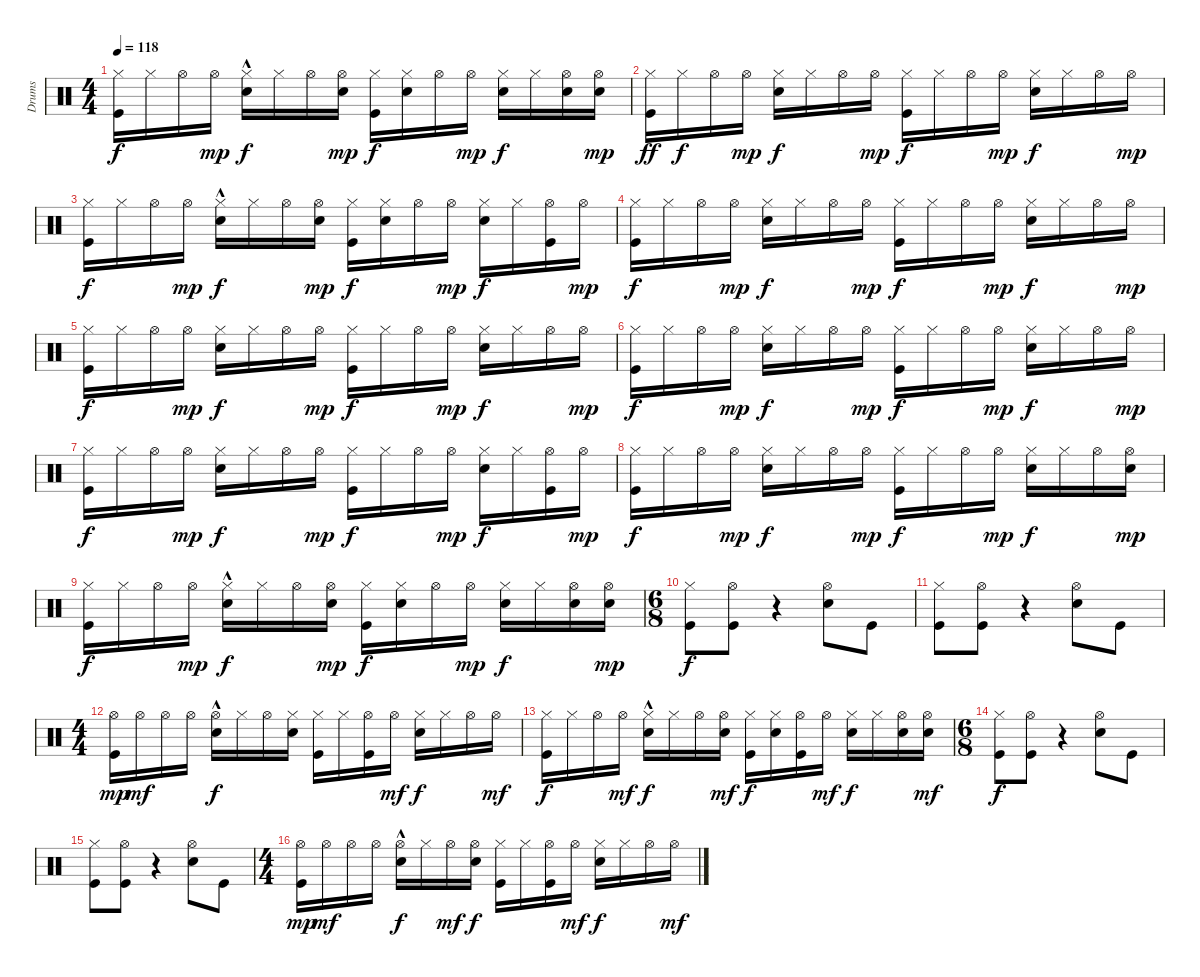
\track ("Drums" "Drums") {instrument percussion}
\staff {score}
\articulation defaults
\ts (4 4)
\tempo 118
\clef neutral
\ks c
("Hi-Hat (closed)" "Kick (hit)").16{dy f} "Hi-Hat (closed)".16 "Hi-Hat (open)".16 "Hi-Hat (open)".16{dy mp} ("Hi-Hat (closed)" "Electric Snare (hit)"{hac}).16{dy f} "Hi-Hat (closed)".16 "Hi-Hat (open)".16 ("Electric Snare (hit)" "Hi-Hat (open)").16{dy mp} ("Kick (hit)" "Hi-Hat (closed)").16{dy f} ("Electric Snare (hit)" "Hi-Hat (closed)").16 "Hi-Hat (open)".16 "Hi-Hat (open)".16{dy mp} ("Hi-Hat (closed)" "Electric Snare (hit)").16{dy f} "Hi-Hat (closed)".16 ("Electric Snare (hit)" "Hi-Hat (open)").16 ("Electric Snare (hit)" "Hi-Hat (open)").16{dy mp} |
("Hi-Hat (closed)" "Kick (hit)").16{dy ff} "Hi-Hat (closed)".16{dy f} "Hi-Hat (open)".16 "Hi-Hat (open)".16{dy mp} ("Hi-Hat (closed)" "Electric Snare (hit)").16{dy f} "Hi-Hat (closed)".16 "Hi-Hat (open)".16 "Hi-Hat (open)".16{dy mp} ("Kick (hit)" "Hi-Hat (closed)").16{dy f} "Hi-Hat (closed)".16 "Hi-Hat (open)".16 "Hi-Hat (open)".16{dy mp} ("Hi-Hat (closed)" "Electric Snare (hit)").16{dy f} "Hi-Hat (closed)".16 "Hi-Hat (open)".16 "Hi-Hat (open)".16{dy mp} |
("Hi-Hat (closed)" "Kick (hit)").16{dy f} "Hi-Hat (closed)".16 "Hi-Hat (open)".16 "Hi-Hat (open)".16{dy mp} ("Hi-Hat (closed)" "Electric Snare (hit)"{hac}).16{dy f} "Hi-Hat (closed)".16 "Hi-Hat (open)".16 ("Electric Snare (hit)" "Hi-Hat (open)").16{dy mp} ("Kick (hit)" "Hi-Hat (closed)").16{dy f} ("Electric Snare (hit)" "Hi-Hat (closed)").16 "Hi-Hat (open)".16 "Hi-Hat (open)".16{dy mp} ("Hi-Hat (closed)" "Electric Snare (hit)").16{dy f} "Hi-Hat (closed)".16 ("Kick (hit)" "Hi-Hat (open)").16 "Hi-Hat (open)".16{dy mp} |
("Hi-Hat (closed)" "Kick (hit)").16{dy f} "Hi-Hat (closed)".16 "Hi-Hat (open)".16 "Hi-Hat (open)".16{dy mp} ("Hi-Hat (closed)" "Electric Snare (hit)").16{dy f} "Hi-Hat (closed)".16 "Hi-Hat (open)".16 "Hi-Hat (open)".16{dy mp} ("Kick (hit)" "Hi-Hat (closed)").16{dy f} "Hi-Hat (closed)".16 "Hi-Hat (open)".16 "Hi-Hat (open)".16{dy mp} ("Hi-Hat (closed)" "Electric Snare (hit)").16{dy f} "Hi-Hat (closed)".16 "Hi-Hat (open)".16 "Hi-Hat (open)".16{dy mp} |
("Hi-Hat (closed)" "Kick (hit)").16{dy f} "Hi-Hat (closed)".16 "Hi-Hat (open)".16 "Hi-Hat (open)".16{dy mp} ("Hi-Hat (closed)" "Electric Snare (hit)").16{dy f} "Hi-Hat (closed)".16 "Hi-Hat (open)".16 "Hi-Hat (open)".16{dy mp} ("Kick (hit)" "Hi-Hat (closed)").16{dy f} "Hi-Hat (closed)".16 "Hi-Hat (open)".16 "Hi-Hat (open)".16{dy mp} ("Hi-Hat (closed)" "Electric Snare (hit)").16{dy f} "Hi-Hat (closed)".16 "Hi-Hat (open)".16 "Hi-Hat (open)".16{dy mp} |
("Hi-Hat (closed)" "Kick (hit)").16{dy f} "Hi-Hat (closed)".16 "Hi-Hat (open)".16 "Hi-Hat (open)".16{dy mp} ("Hi-Hat (closed)" "Electric Snare (hit)").16{dy f} "Hi-Hat (closed)".16 "Hi-Hat (open)".16 "Hi-Hat (open)".16{dy mp} ("Kick (hit)" "Hi-Hat (closed)").16{dy f} "Hi-Hat (closed)".16 "Hi-Hat (open)".16 "Hi-Hat (open)".16{dy mp} ("Hi-Hat (closed)" "Electric Snare (hit)").16{dy f} "Hi-Hat (closed)".16 "Hi-Hat (open)".16 "Hi-Hat (open)".16{dy mp} |
("Hi-Hat (closed)" "Kick (hit)").16{dy f} "Hi-Hat (closed)".16 "Hi-Hat (open)".16 "Hi-Hat (open)".16{dy mp} ("Electric Snare (hit)" "Hi-Hat (closed)").16{dy f} "Hi-Hat (closed)".16 "Hi-Hat (open)".16 "Hi-Hat (open)".16{dy mp} ("Kick (hit)" "Hi-Hat (closed)").16{dy f} "Hi-Hat (closed)".16 "Hi-Hat (open)".16 "Hi-Hat (open)".16{dy mp} ("Hi-Hat (closed)" "Electric Snare (hit)").16{dy f} "Hi-Hat (closed)".16 ("Kick (hit)" "Hi-Hat (open)").16 "Hi-Hat (open)".16{dy mp} |
("Hi-Hat (closed)" "Kick (hit)").16{dy f} "Hi-Hat (closed)".16 "Hi-Hat (open)".16 "Hi-Hat (open)".16{dy mp} ("Hi-Hat (closed)" "Electric Snare (hit)").16{dy f} "Hi-Hat (closed)".16 "Hi-Hat (open)".16 "Hi-Hat (open)".16{dy mp} ("Kick (hit)" "Hi-Hat (closed)").16{dy f} "Hi-Hat (closed)".16 "Hi-Hat (open)".16 "Hi-Hat (open)".16{dy mp} ("Hi-Hat (closed)" "Electric Snare (hit)").16{dy f} "Hi-Hat (closed)".16 "Hi-Hat (open)".16 ("Electric Snare (hit)" "Hi-Hat (open)").16{dy mp} |
("Hi-Hat (closed)" "Kick (hit)").16{dy f} "Hi-Hat (closed)".16 "Hi-Hat (open)".16 "Hi-Hat (open)".16{dy mp} ("Hi-Hat (closed)" "Electric Snare (hit)"{hac}).16{dy f} "Hi-Hat (closed)".16 "Hi-Hat (open)".16 ("Electric Snare (hit)" "Hi-Hat (open)").16{dy mp} ("Kick (hit)" "Hi-Hat (closed)").16{dy f} ("Electric Snare (hit)" "Hi-Hat (closed)").16 "Hi-Hat (open)".16 "Hi-Hat (open)".16{dy mp} ("Hi-Hat (closed)" "Electric Snare (hit)").16{dy f} "Hi-Hat (closed)".16 ("Electric Snare (hit)" "Hi-Hat (open)").16 ("Electric Snare (hit)" "Hi-Hat (open)").16{dy mp} |
\ts (6 8)
("Hi-Hat (closed)" "Kick (hit)").8{dy f} ("Hi-Hat (open)" "Kick (hit)").8 r.4 ("Hi-Hat (open)" "Electric Snare (hit)").8 "Kick (hit)".8 |
("Hi-Hat (closed)" "Kick (hit)").8 ("Hi-Hat (open)" "Kick (hit)").8 r.4 ("Electric Snare (hit)" "Hi-Hat (open)").8 "Kick (hit)".8 |
\ts (4 4)
("Kick (hit)" "Hi-Hat (open)").16{dy mp} "Hi-Hat (open)".16{dy mf} "Hi-Hat (open)".16 "Hi-Hat (open)".16 ("Electric Snare (hit)"{hac} "Hi-Hat (open)").16{dy f} "Hi-Hat (closed)".16 "Hi-Hat (open)".16 ("Electric Snare (hit)" "Hi-Hat (closed)").16 ("Hi-Hat (closed)" "Kick (hit)").16 "Hi-Hat (closed)".16 ("Hi-Hat (open)" "Kick (hit)").16 "Hi-Hat (open)".16{dy mf} ("Electric Snare (hit)" "Hi-Hat (closed)").16{dy f} "Hi-Hat (closed)".16 "Hi-Hat (open)".16 "Hi-Hat (open)".16{dy mf} |
("Hi-Hat (closed)" "Kick (hit)").16{dy f} "Hi-Hat (closed)".16 "Hi-Hat (open)".16 "Hi-Hat (open)".16{dy mf} ("Hi-Hat (closed)" "Electric Snare (hit)"{hac}).16{dy f} "Hi-Hat (closed)".16 "Hi-Hat (open)".16 ("Electric Snare (hit)" "Hi-Hat (open)").16{dy mf} ("Hi-Hat (closed)" "Kick (hit)").16{dy f} ("Electric Snare (hit)" "Hi-Hat (closed)").16 ("Hi-Hat (open)" "Kick (hit)").16 "Hi-Hat (open)".16{dy mf} ("Electric Snare (hit)" "Hi-Hat (closed)").16{dy f} "Hi-Hat (closed)".16 ("Hi-Hat (open)" "Electric Snare (hit)").16 ("Hi-Hat (open)" "Electric Snare (hit)").16{dy mf} |
\ts (6 8)
("Hi-Hat (closed)" "Kick (hit)").8{dy f} ("Hi-Hat (open)" "Kick (hit)").8 r.4 ("Hi-Hat (open)" "Electric Snare (hit)").8 "Kick (hit)".8 |
("Hi-Hat (closed)" "Kick (hit)").8 ("Hi-Hat (open)" "Kick (hit)").8 r.4 ("Electric Snare (hit)" "Hi-Hat (open)").8 "Kick (hit)".8 |
\ts (4 4)
("Kick (hit)" "Hi-Hat (open)").16{dy mp} "Hi-Hat (open)".16{dy mf} "Hi-Hat (open)".16 "Hi-Hat (open)".16 ("Electric Snare (hit)"{hac} "Hi-Hat (open)").16{dy f} "Hi-Hat (closed)".16 "Hi-Hat (open)".16{dy mf} ("Electric Snare (hit)" "Hi-Hat (open)").16{dy f} ("Hi-Hat (closed)" "Kick (hit)").16 "Hi-Hat (closed)".16 ("Hi-Hat (open)" "Kick (hit)").16 "Hi-Hat (open)".16{dy mf} ("Electric Snare (hit)" "Hi-Hat (closed)").16{dy f} "Hi-Hat (closed)".16 "Hi-Hat (open)".16 "Hi-Hat (open)".16{dy mf}
